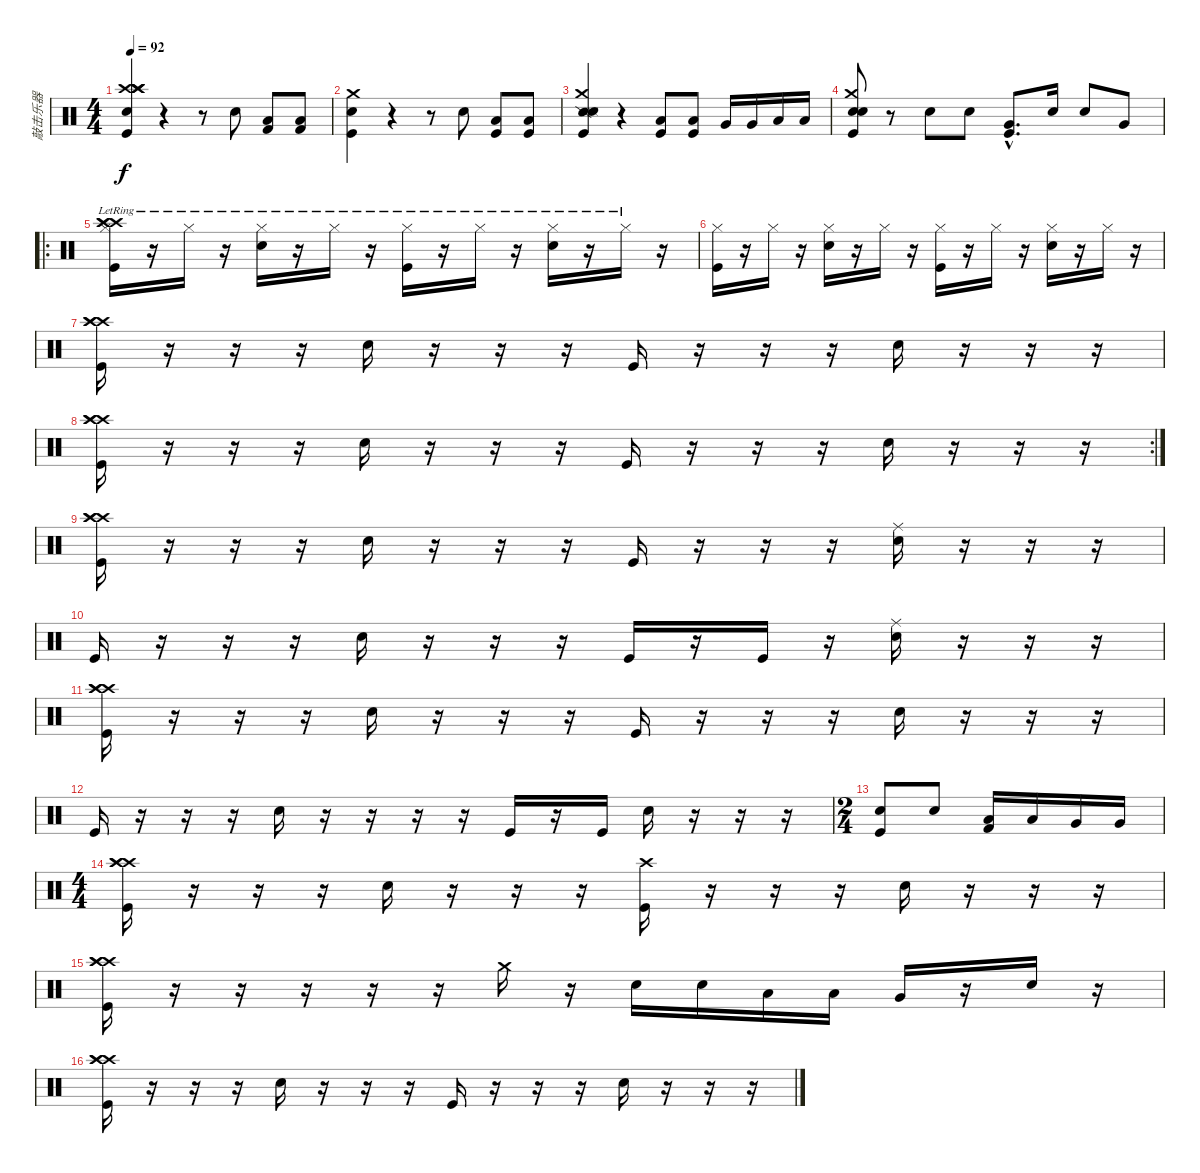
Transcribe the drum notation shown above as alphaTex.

\track ("敲击乐器" "敲击乐器") {instrument percussion}
\staff {score}
\articulation defaults
\ts (4 4)
\tempo 92
\clef neutral
\ks c
("Kick (hit)" "Crash high (hit)" "Crash high (hit)" "Crash high (hit)" "Crash high (hit)" "Electric Snare (hit)").4{dy f} r.4 r.8 "Electric Snare (hit)".8 ("Low Floor Tom (hit)" "Kick (hit) 2").8 ("Low Floor Tom (hit)" "Kick (hit) 2").8 |
("Crash medium (hit)" "Electric Snare (hit)" "Kick (hit)").4 r.4 r.8 "Electric Snare (hit)".8 ("Low Floor Tom (hit)" "Kick (hit)").8 ("Low Floor Tom (hit)" "Kick (hit)").8 |
("Snare (side stick) 2" "Metronome (hit)" "Metronome (bell)" "Kick (hit)" "Crash medium (hit)").4 r.4 ("Low Tom (hit)" "Kick (hit)").8 ("Low Tom (hit)" "Kick (hit)").8 "Very Low Tom (hit)".16 "Very Low Tom (hit)".16 "Low Floor Tom (hit)".16 "Low Floor Tom (hit)".16 |
("Crash medium (hit)" "Metronome (bell)" "Kick (hit)" "Electric Snare (hit)").8 r.8 "Electric Snare (hit)".8 "Electric Snare (hit)".8 ("Very Low Tom (hit)"{hac} "Kick (hit)"{hac}).8{d} "Electric Snare (hit)".16 "Electric Snare (hit)".8 "Very Low Tom (hit)".8 |
\ro
("Hi-Hat (closed)"{lr} "Kick (hit)" "Crash high (hit)" "Crash high (hit)" "Crash high (hit)").16 r.16 "Hi-Hat (closed)"{lr}.16 r.16 ("Hi-Hat (closed)"{lr} "Electric Snare (hit)").16 r.16 "Hi-Hat (closed)"{lr}.16 r.16 ("Hi-Hat (closed)"{lr} "Kick (hit)").16 r.16 "Hi-Hat (closed)"{lr}.16 r.16 ("Hi-Hat (closed)"{lr} "Electric Snare (hit)").16 r.16 "Hi-Hat (closed)"{lr}.16 r.16 |
("Hi-Hat (closed)" "Kick (hit)").16 r.16 "Hi-Hat (closed)".16 r.16 ("Hi-Hat (closed)" "Electric Snare (hit)").16 r.16 "Hi-Hat (closed)".16 r.16 ("Hi-Hat (closed)" "Kick (hit)").16 r.16 "Hi-Hat (closed)".16 r.16 ("Hi-Hat (closed)" "Electric Snare (hit)").16 r.16 "Hi-Hat (closed)".16 r.16 |
("Kick (hit)" "Crash high (hit)" "Crash high (hit)" "Crash high (hit)").16 r.16 r.16 r.16 "Electric Snare (hit)".16 r.16 r.16 r.16 "Kick (hit)".16 r.16 r.16 r.16 "Electric Snare (hit)".16 r.16 r.16 r.16 |
\rc 2
("Kick (hit)" "Crash high (hit)" "Crash high (hit)" "Crash high (hit)").16 r.16 r.16 r.16 "Electric Snare (hit)".16 r.16 r.16 r.16 "Kick (hit)".16 r.16 r.16 r.16 "Electric Snare (hit)".16 r.16 r.16 r.16 |
("Kick (hit)" "Crash high (hit)" "Crash high (hit)" "Crash high (hit)").16 r.16 r.16 r.16 "Electric Snare (hit)".16 r.16 r.16 r.16 "Kick (hit)".16 r.16 r.16 r.16 ("Ride (middle)" "Electric Snare (hit)").16 r.16 r.16 r.16 |
"Kick (hit)".16 r.16 r.16 r.16 "Electric Snare (hit)".16 r.16 r.16 r.16 "Kick (hit)".16 r.16 "Kick (hit)".16 r.16 ("Ride (middle)" "Electric Snare (hit)").16 r.16 r.16 r.16 |
("Kick (hit)" "Crash high (hit)" "Crash high (hit)" "Crash high (hit)").16 r.16 r.16 r.16 "Electric Snare (hit)".16 r.16 r.16 r.16 "Kick (hit)".16 r.16 r.16 r.16 "Electric Snare (hit)".16 r.16 r.16 r.16 |
"Kick (hit)".16 r.16 r.16 r.16 "Electric Snare (hit)".16 r.16 r.16 r.16 r.16 "Kick (hit)".16 r.16 "Kick (hit)".16 "Electric Snare (hit)".16 r.16 r.16 r.16 |
\ts (2 4)
("Electric Snare (hit)" "Kick (hit)").8 "Electric Snare (hit)".8 ("Low Tom (hit)" "Kick (hit) 2").16 "Low Tom (hit)".16 "Very Low Tom (hit)".16 "Very Low Tom (hit)".16 |
\ts (4 4)
("Kick (hit)" "Crash high (hit)" "Crash high (hit)" "Crash high (hit)").16 r.16 r.16 r.16 "Electric Snare (hit)".16 r.16 r.16 r.16 ("Kick (hit)" "Crash high (hit)").16 r.16 r.16 r.16 "Electric Snare (hit)".16 r.16 r.16 r.16 |
("Kick (hit)" "Crash high (hit)" "Crash high (hit)" "Crash high (hit)").16 r.16 r.16 r.16 r.16 r.16 "Crash medium (hit)".16 r.16 "Electric Snare (hit)".16 "Electric Snare (hit)".16 "Low Tom (hit)".16 "Low Tom (hit)".16 "Very Low Tom (hit)".16 r.16 "Electric Snare (hit)".16 r.16 |
("Kick (hit)" "Crash high (hit)" "Crash high (hit)" "Crash high (hit)").16 r.16 r.16 r.16 "Electric Snare (hit)".16 r.16 r.16 r.16 "Kick (hit)".16 r.16 r.16 r.16 "Electric Snare (hit)".16 r.16 r.16 r.16
